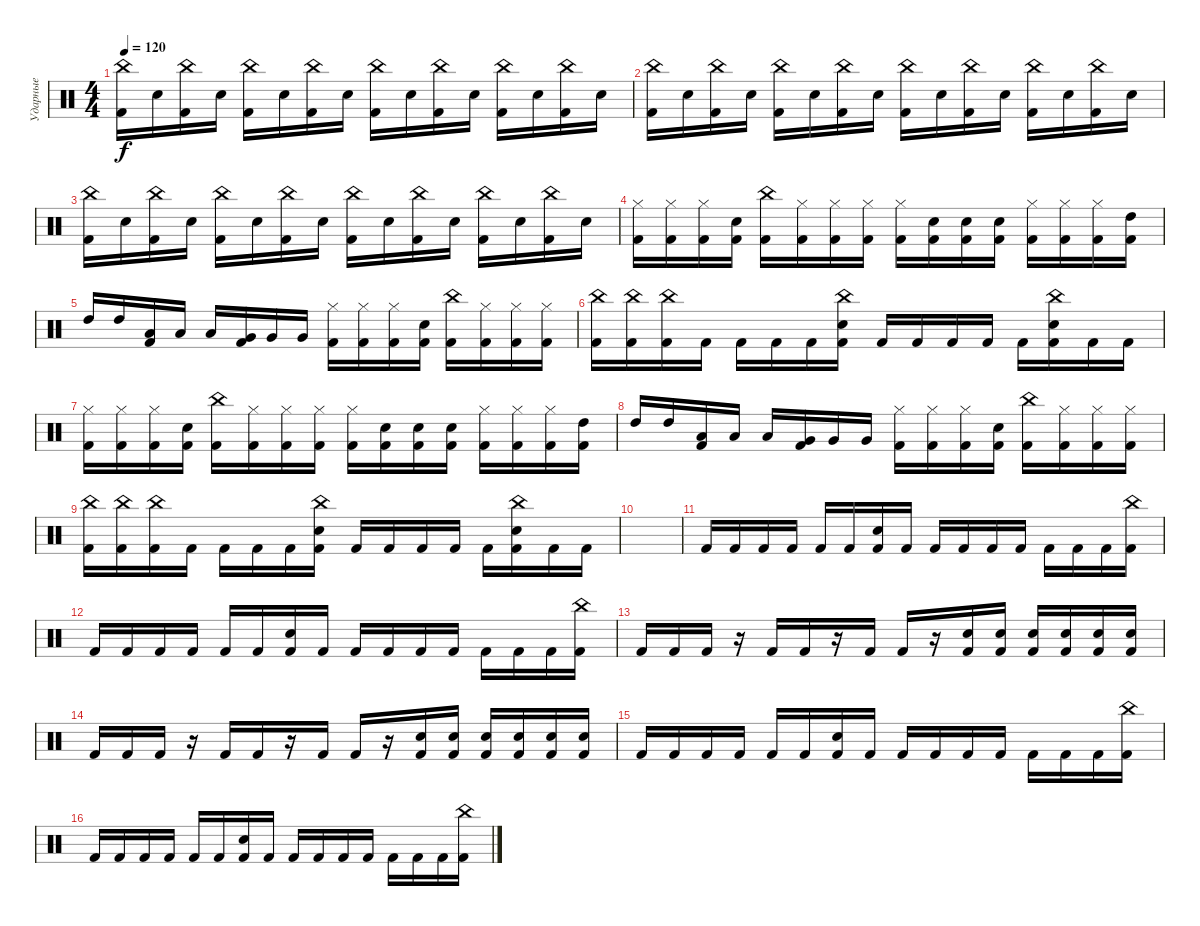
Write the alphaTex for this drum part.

\track ("Ударные" "Ударные") {instrument percussion}
\staff {score}
\articulation defaults
\ts (4 4)
\tempo 120
\clef neutral
\ks c
("China (hit)" "Kick (hit) 2").16{dy f} "Snare (hit) 2".16 ("China (hit)" "Kick (hit) 2").16 "Snare (hit) 2".16 ("China (hit)" "Kick (hit) 2").16 "Snare (hit) 2".16 ("China (hit)" "Kick (hit) 2").16 "Snare (hit) 2".16 ("China (hit)" "Kick (hit) 2").16 "Snare (hit) 2".16 ("China (hit)" "Kick (hit) 2").16 "Snare (hit) 2".16 ("China (hit)" "Kick (hit) 2").16 "Snare (hit) 2".16 ("China (hit)" "Kick (hit) 2").16 "Snare (hit) 2".16 |
("China (hit)" "Kick (hit) 2").16 "Snare (hit) 2".16 ("China (hit)" "Kick (hit) 2").16 "Snare (hit) 2".16 ("China (hit)" "Kick (hit) 2").16 "Snare (hit) 2".16 ("China (hit)" "Kick (hit) 2").16 "Snare (hit) 2".16 ("China (hit)" "Kick (hit) 2").16 "Snare (hit) 2".16 ("China (hit)" "Kick (hit) 2").16 "Snare (hit) 2".16 ("China (hit)" "Kick (hit) 2").16 "Snare (hit) 2".16 ("China (hit)" "Kick (hit) 2").16 "Snare (hit) 2".16 |
("China (hit)" "Kick (hit) 2").16 "Snare (hit) 2".16 ("China (hit)" "Kick (hit) 2").16 "Snare (hit) 2".16 ("China (hit)" "Kick (hit) 2").16 "Snare (hit) 2".16 ("China (hit)" "Kick (hit) 2").16 "Snare (hit) 2".16 ("China (hit)" "Kick (hit) 2").16 "Snare (hit) 2".16 ("China (hit)" "Kick (hit) 2").16 "Snare (hit) 2".16 ("China (hit)" "Kick (hit) 2").16 "Snare (hit) 2".16 ("China (hit)" "Kick (hit) 2").16 "Snare (hit) 2".16 |
("Hi-Hat (closed)" "Kick (hit) 2").16 ("Hi-Hat (closed)" "Kick (hit) 2").16 ("Hi-Hat (closed)" "Kick (hit) 2").16 ("Snare (hit) 2" "Kick (hit) 2").16 ("China (hit)" "Kick (hit) 2").16 ("Hi-Hat (closed)" "Kick (hit) 2").16 ("Hi-Hat (closed)" "Kick (hit) 2").16 ("Hi-Hat (closed)" "Kick (hit) 2").16 ("Hi-Hat (closed)" "Kick (hit) 2").16 ("Snare (hit) 2" "Kick (hit) 2").16 ("Snare (hit) 2" "Kick (hit) 2").16 ("Snare (hit) 2" "Kick (hit) 2").16 ("Hi-Hat (closed)" "Kick (hit) 2").16 ("Hi-Hat (closed)" "Kick (hit) 2").16 ("Hi-Hat (closed)" "Kick (hit) 2").16 ("High Tom (hit)" "Kick (hit) 2").16 |
"High Tom (hit)".16 "High Tom (hit)".16 ("Low Tom (hit)" "Kick (hit) 2").16 "Low Tom (hit)".16 "Low Tom (hit)".16 ("Very Low Tom (hit)" "Kick (hit) 2").16 "Very Low Tom (hit)".16 "Very Low Tom (hit)".16 ("Hi-Hat (closed)" "Kick (hit) 2").16 ("Hi-Hat (closed)" "Kick (hit) 2").16 ("Hi-Hat (closed)" "Kick (hit) 2").16 ("Snare (hit) 2" "Kick (hit) 2").16 ("China (hit)" "Kick (hit) 2").16 ("Hi-Hat (closed)" "Kick (hit) 2").16 ("Hi-Hat (closed)" "Kick (hit) 2").16 ("Hi-Hat (closed)" "Kick (hit) 2").16 |
("China (hit)" "Kick (hit) 2").16 ("China (hit)" "Kick (hit) 2").16 ("China (hit)" "Kick (hit) 2").16 "Kick (hit) 2".16 "Kick (hit) 2".16 "Kick (hit) 2".16 "Kick (hit) 2".16 ("China (hit)" "Snare (hit) 2" "Kick (hit) 2").16 "Kick (hit) 2".16 "Kick (hit) 2".16 "Kick (hit) 2".16 "Kick (hit) 2".16 "Kick (hit) 2".16 ("China (hit)" "Snare (hit) 2" "Kick (hit) 2").16 "Kick (hit) 2".16 "Kick (hit) 2".16 |
("Hi-Hat (closed)" "Kick (hit) 2").16 ("Hi-Hat (closed)" "Kick (hit) 2").16 ("Hi-Hat (closed)" "Kick (hit) 2").16 ("Snare (hit) 2" "Kick (hit) 2").16 ("China (hit)" "Kick (hit) 2").16 ("Hi-Hat (closed)" "Kick (hit) 2").16 ("Hi-Hat (closed)" "Kick (hit) 2").16 ("Hi-Hat (closed)" "Kick (hit) 2").16 ("Hi-Hat (closed)" "Kick (hit) 2").16 ("Snare (hit) 2" "Kick (hit) 2").16 ("Snare (hit) 2" "Kick (hit) 2").16 ("Snare (hit) 2" "Kick (hit) 2").16 ("Hi-Hat (closed)" "Kick (hit) 2").16 ("Hi-Hat (closed)" "Kick (hit) 2").16 ("Hi-Hat (closed)" "Kick (hit) 2").16 ("High Tom (hit)" "Kick (hit) 2").16 |
"High Tom (hit)".16 "High Tom (hit)".16 ("Low Tom (hit)" "Kick (hit) 2").16 "Low Tom (hit)".16 "Low Tom (hit)".16 ("Very Low Tom (hit)" "Kick (hit) 2").16 "Very Low Tom (hit)".16 "Very Low Tom (hit)".16 ("Hi-Hat (closed)" "Kick (hit) 2").16 ("Hi-Hat (closed)" "Kick (hit) 2").16 ("Hi-Hat (closed)" "Kick (hit) 2").16 ("Snare (hit) 2" "Kick (hit) 2").16 ("China (hit)" "Kick (hit) 2").16 ("Hi-Hat (closed)" "Kick (hit) 2").16 ("Hi-Hat (closed)" "Kick (hit) 2").16 ("Hi-Hat (closed)" "Kick (hit) 2").16 |
("China (hit)" "Kick (hit) 2").16 ("China (hit)" "Kick (hit) 2").16 ("China (hit)" "Kick (hit) 2").16 "Kick (hit) 2".16 "Kick (hit) 2".16 "Kick (hit) 2".16 "Kick (hit) 2".16 ("China (hit)" "Snare (hit) 2" "Kick (hit) 2").16 "Kick (hit) 2".16 "Kick (hit) 2".16 "Kick (hit) 2".16 "Kick (hit) 2".16 "Kick (hit) 2".16 ("China (hit)" "Snare (hit) 2" "Kick (hit) 2").16 "Kick (hit) 2".16 "Kick (hit) 2".16 |
|
"Kick (hit) 2".16 "Kick (hit) 2".16 "Kick (hit) 2".16 "Kick (hit) 2".16 "Kick (hit) 2".16 "Kick (hit) 2".16 ("Snare (hit) 2" "Kick (hit) 2").16 "Kick (hit) 2".16 "Kick (hit) 2".16 "Kick (hit) 2".16 "Kick (hit) 2".16 "Kick (hit) 2".16 "Kick (hit) 2".16 "Kick (hit) 2".16 "Kick (hit) 2".16 ("China (hit)" "Kick (hit) 2").16 |
"Kick (hit) 2".16 "Kick (hit) 2".16 "Kick (hit) 2".16 "Kick (hit) 2".16 "Kick (hit) 2".16 "Kick (hit) 2".16 ("Snare (hit) 2" "Kick (hit) 2").16 "Kick (hit) 2".16 "Kick (hit) 2".16 "Kick (hit) 2".16 "Kick (hit) 2".16 "Kick (hit) 2".16 "Kick (hit) 2".16 "Kick (hit) 2".16 "Kick (hit) 2".16 ("China (hit)" "Kick (hit) 2").16 |
"Kick (hit) 2".16 "Kick (hit) 2".16 "Kick (hit) 2".16 r.16 "Kick (hit) 2".16 "Kick (hit) 2".16 r.16 "Kick (hit) 2".16 "Kick (hit) 2".16 r.16 ("Snare (hit) 2" "Kick (hit) 2").16 ("Snare (hit) 2" "Kick (hit) 2").16 ("Snare (hit) 2" "Kick (hit) 2").16 ("Snare (hit) 2" "Kick (hit) 2").16 ("Snare (hit) 2" "Kick (hit) 2").16 ("Snare (hit) 2" "Kick (hit) 2").16 |
"Kick (hit) 2".16 "Kick (hit) 2".16 "Kick (hit) 2".16 r.16 "Kick (hit) 2".16 "Kick (hit) 2".16 r.16 "Kick (hit) 2".16 "Kick (hit) 2".16 r.16 ("Snare (hit) 2" "Kick (hit) 2").16 ("Snare (hit) 2" "Kick (hit) 2").16 ("Snare (hit) 2" "Kick (hit) 2").16 ("Snare (hit) 2" "Kick (hit) 2").16 ("Snare (hit) 2" "Kick (hit) 2").16 ("Snare (hit) 2" "Kick (hit) 2").16 |
"Kick (hit) 2".16 "Kick (hit) 2".16 "Kick (hit) 2".16 "Kick (hit) 2".16 "Kick (hit) 2".16 "Kick (hit) 2".16 ("Snare (hit) 2" "Kick (hit) 2").16 "Kick (hit) 2".16 "Kick (hit) 2".16 "Kick (hit) 2".16 "Kick (hit) 2".16 "Kick (hit) 2".16 "Kick (hit) 2".16 "Kick (hit) 2".16 "Kick (hit) 2".16 ("China (hit)" "Kick (hit) 2").16 |
"Kick (hit) 2".16 "Kick (hit) 2".16 "Kick (hit) 2".16 "Kick (hit) 2".16 "Kick (hit) 2".16 "Kick (hit) 2".16 ("Snare (hit) 2" "Kick (hit) 2").16 "Kick (hit) 2".16 "Kick (hit) 2".16 "Kick (hit) 2".16 "Kick (hit) 2".16 "Kick (hit) 2".16 "Kick (hit) 2".16 "Kick (hit) 2".16 "Kick (hit) 2".16 ("China (hit)" "Kick (hit) 2").16
